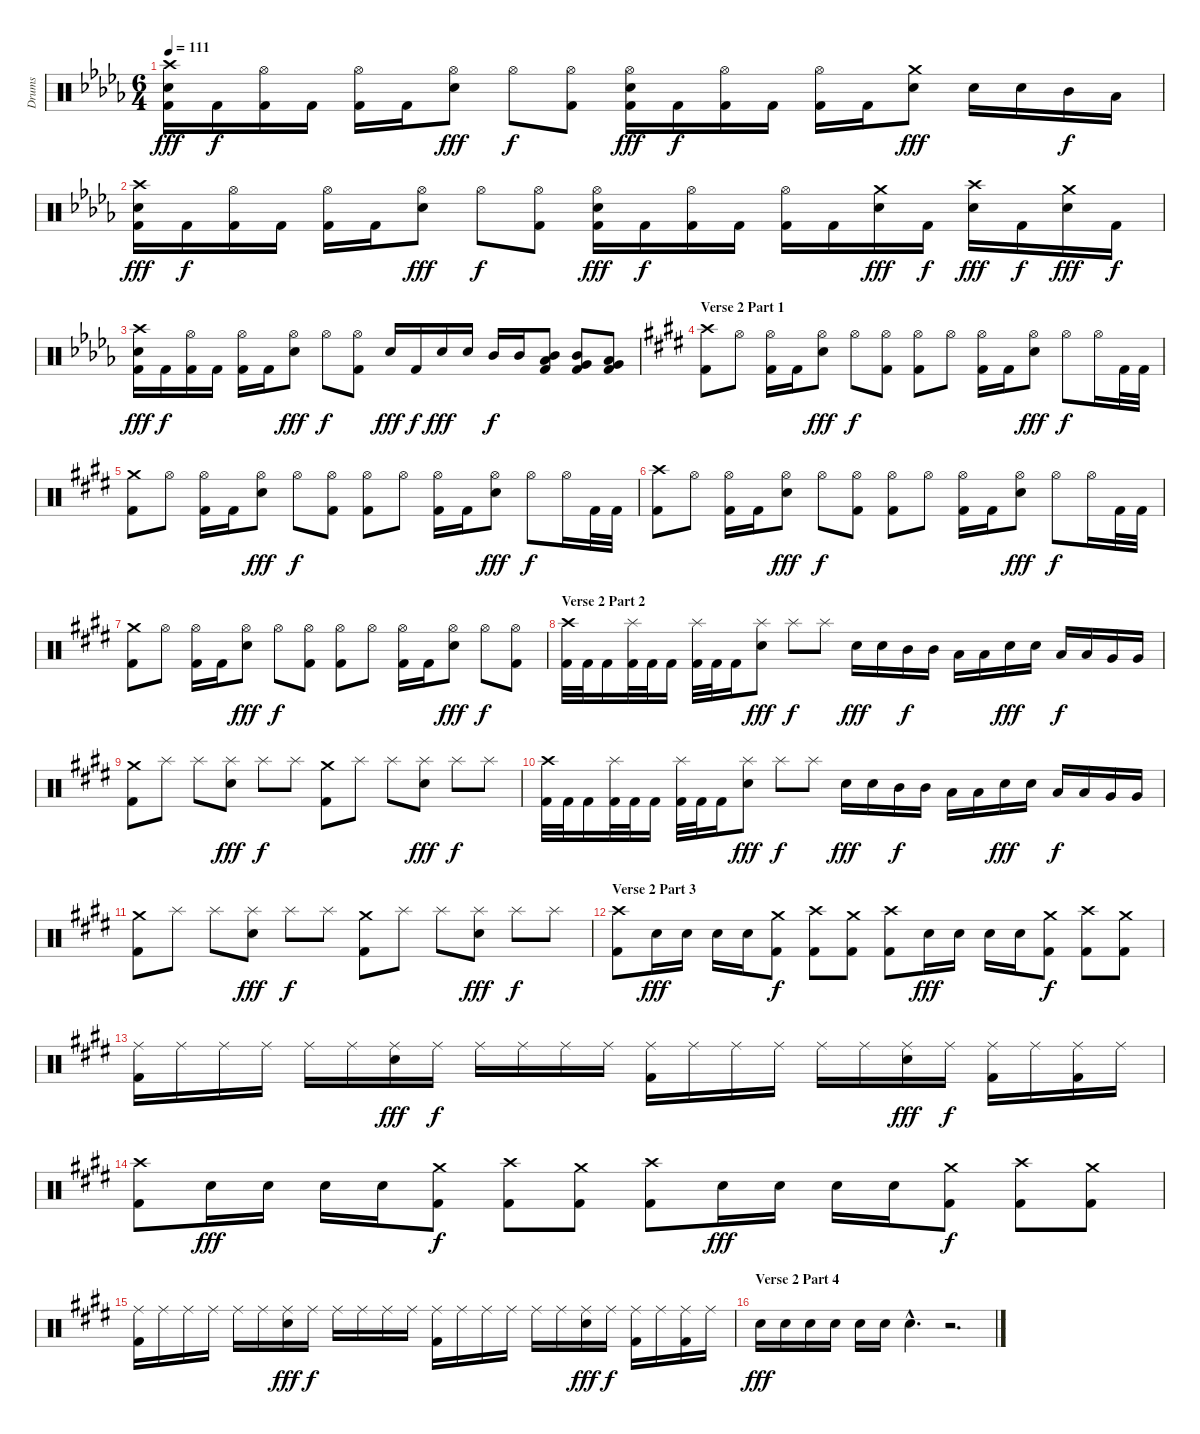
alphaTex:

\track ("Drums" "Drums") {instrument percussion}
\staff {score}
\articulation defaults
\ts (6 4)
\tempo 111
\clef neutral
\ks db
("Crash high (hit)" "Snare (hit) 2" "Kick (hit) 2").16{dy fff} "Kick (hit) 2".16{dy f} ("Hi-Hat (open)" "Kick (hit) 2").16 "Kick (hit) 2".16 ("Hi-Hat (open)" "Kick (hit) 2").16 "Kick (hit) 2".16 ("Hi-Hat (open)" "Snare (hit) 2").8{dy fff} "Hi-Hat (open)".8{dy f} ("Hi-Hat (open)" "Kick (hit) 2").8 ("Hi-Hat (open)" "Snare (hit) 2" "Kick (hit) 2").16{dy fff} "Kick (hit) 2".16{dy f} ("Hi-Hat (open)" "Kick (hit) 2").16 "Kick (hit) 2".16 ("Hi-Hat (open)" "Kick (hit) 2").16 "Kick (hit) 2".16 ("Crash medium (hit)" "Snare (hit) 2").8{dy fff} "Snare (hit) 2".16 "Snare (hit) 2".16 "Mid Tom (hit)".16{dy f} "Low Tom (hit)".16 |
("Crash high (hit)" "Snare (hit) 2" "Kick (hit) 2").16{dy fff} "Kick (hit) 2".16{dy f} ("Hi-Hat (open)" "Kick (hit) 2").16 "Kick (hit) 2".16 ("Hi-Hat (open)" "Kick (hit) 2").16 "Kick (hit) 2".16 ("Hi-Hat (open)" "Snare (hit) 2").8{dy fff} "Hi-Hat (open)".8{dy f} ("Hi-Hat (open)" "Kick (hit) 2").8 ("Hi-Hat (open)" "Snare (hit) 2" "Kick (hit) 2").16{dy fff} "Kick (hit) 2".16{dy f} ("Hi-Hat (open)" "Kick (hit) 2").16 "Kick (hit) 2".16 ("Hi-Hat (open)" "Kick (hit) 2").16 "Kick (hit) 2".16 ("Crash medium (hit)" "Snare (hit) 2").16{dy fff} "Kick (hit) 2".16{dy f} ("Crash high (hit)" "Snare (hit) 2").16{dy fff} "Kick (hit) 2".16{dy f} ("Crash medium (hit)" "Snare (hit) 2").16{dy fff} "Kick (hit) 2".16{dy f} |
("Crash high (hit)" "Snare (hit) 2" "Kick (hit) 2").16{dy fff} "Kick (hit) 2".16{dy f} ("Hi-Hat (open)" "Kick (hit) 2").16 "Kick (hit) 2".16 ("Hi-Hat (open)" "Kick (hit) 2").16 "Kick (hit) 2".16 ("Hi-Hat (open)" "Snare (hit) 2").8{dy fff} "Hi-Hat (open)".8{dy f} ("Hi-Hat (open)" "Kick (hit) 2").8 "Snare (hit) 2".16{dy fff} "Kick (hit) 2".16{dy f} "Snare (hit) 2".16{dy fff} "Snare (hit) 2".16 "Mid Tom (hit)".16{dy f} "Mid Tom (hit)".16 ("Mid Tom (hit)" "Low Tom (hit)" "Kick (hit) 2").8 ("Mid Tom (hit)" "Very Low Tom (hit)" "Kick (hit) 2").8 ("Low Tom (hit)" "Very Low Tom (hit)" "Kick (hit) 2").8 |
\section ("" "Verse 2 Part 1")
\ks c#minor
("Crash high (hit)" "Kick (hit) 2").8 "Hi-Hat (open)".8 ("Hi-Hat (open)" "Kick (hit) 2").16 "Kick (hit) 2".16 ("Hi-Hat (open)" "Snare (hit) 2").8{dy fff} "Hi-Hat (open)".8{dy f} ("Hi-Hat (open)" "Kick (hit) 2").8 ("Hi-Hat (open)" "Kick (hit) 2").8 "Hi-Hat (open)".8 ("Hi-Hat (open)" "Kick (hit) 2").16 "Kick (hit) 2".16 ("Hi-Hat (open)" "Snare (hit) 2").8{dy fff} "Hi-Hat (open)".8{dy f} "Hi-Hat (open)".16 "Kick (hit) 2".32 "Kick (hit) 2".32 |
("Crash medium (hit)" "Kick (hit) 2").8 "Hi-Hat (open)".8 ("Hi-Hat (open)" "Kick (hit) 2").16 "Kick (hit) 2".16 ("Hi-Hat (open)" "Snare (hit) 2").8{dy fff} "Hi-Hat (open)".8{dy f} ("Hi-Hat (open)" "Kick (hit) 2").8 ("Hi-Hat (open)" "Kick (hit) 2").8 "Hi-Hat (open)".8 ("Hi-Hat (open)" "Kick (hit) 2").16 "Kick (hit) 2".16 ("Hi-Hat (open)" "Snare (hit) 2").8{dy fff} "Hi-Hat (open)".8{dy f} "Hi-Hat (open)".16 "Kick (hit) 2".32 "Kick (hit) 2".32 |
("Crash high (hit)" "Kick (hit) 2").8 "Hi-Hat (open)".8 ("Hi-Hat (open)" "Kick (hit) 2").16 "Kick (hit) 2".16 ("Hi-Hat (open)" "Snare (hit) 2").8{dy fff} "Hi-Hat (open)".8{dy f} ("Hi-Hat (open)" "Kick (hit) 2").8 ("Hi-Hat (open)" "Kick (hit) 2").8 "Hi-Hat (open)".8 ("Hi-Hat (open)" "Kick (hit) 2").16 "Kick (hit) 2".16 ("Hi-Hat (open)" "Snare (hit) 2").8{dy fff} "Hi-Hat (open)".8{dy f} "Hi-Hat (open)".16 "Kick (hit) 2".32 "Kick (hit) 2".32 |
("Crash medium (hit)" "Kick (hit) 2").8 "Hi-Hat (open)".8 ("Hi-Hat (open)" "Kick (hit) 2").16 "Kick (hit) 2".16 ("Hi-Hat (open)" "Snare (hit) 2").8{dy fff} "Hi-Hat (open)".8{dy f} ("Hi-Hat (open)" "Kick (hit) 2").8 ("Hi-Hat (open)" "Kick (hit) 2").8 "Hi-Hat (open)".8 ("Hi-Hat (open)" "Kick (hit) 2").16 "Kick (hit) 2".16 ("Hi-Hat (open)" "Snare (hit) 2").8{dy fff} "Hi-Hat (open)".8{dy f} ("Hi-Hat (open)" "Kick (hit) 2").8 |
\section ("" "Verse 2 Part 2")
("Crash high (hit)" "Kick (hit) 2").32 "Kick (hit) 2".32 "Kick (hit) 2".16 ("Splash (hit)" "Kick (hit) 2").32 "Kick (hit) 2".32 "Kick (hit) 2".16 ("Splash (hit)" "Kick (hit) 2").32 "Kick (hit) 2".32 "Kick (hit) 2".16 ("Splash (hit)" "Snare (hit) 2").8{dy fff} "Splash (hit)".8{dy f} "Splash (hit)".8 "Snare (hit) 2".16{dy fff} "Snare (hit) 2".16 "Mid Tom (hit)".16{dy f} "Mid Tom (hit)".16 "Low Tom (hit)".16 "Low Tom (hit)".16 "Snare (hit) 2".16{dy fff} "Snare (hit) 2".16 "Low Tom (hit)".16{dy f} "Low Tom (hit)".16 "Very Low Tom (hit)".16 "Very Low Tom (hit)".16 |
("Crash medium (hit)" "Kick (hit) 2").8 "Splash (hit)".8 "Splash (hit)".8 ("Splash (hit)" "Snare (hit) 2").8{dy fff} "Splash (hit)".8{dy f} "Splash (hit)".8 ("Crash medium (hit)" "Kick (hit) 2").8 "Splash (hit)".8 "Splash (hit)".8 ("Splash (hit)" "Snare (hit) 2").8{dy fff} "Splash (hit)".8{dy f} "Splash (hit)".8 |
("Crash high (hit)" "Kick (hit) 2").32 "Kick (hit) 2".32 "Kick (hit) 2".16 ("Splash (hit)" "Kick (hit) 2").32 "Kick (hit) 2".32 "Kick (hit) 2".16 ("Splash (hit)" "Kick (hit) 2").32 "Kick (hit) 2".32 "Kick (hit) 2".16 ("Splash (hit)" "Snare (hit) 2").8{dy fff} "Splash (hit)".8{dy f} "Splash (hit)".8 "Snare (hit) 2".16{dy fff} "Snare (hit) 2".16 "Mid Tom (hit)".16{dy f} "Mid Tom (hit)".16 "Low Tom (hit)".16 "Low Tom (hit)".16 "Snare (hit) 2".16{dy fff} "Snare (hit) 2".16 "Low Tom (hit)".16{dy f} "Low Tom (hit)".16 "Very Low Tom (hit)".16 "Very Low Tom (hit)".16 |
("Crash medium (hit)" "Kick (hit) 2").8 "Splash (hit)".8 "Splash (hit)".8 ("Splash (hit)" "Snare (hit) 2").8{dy fff} "Splash (hit)".8{dy f} "Splash (hit)".8 ("Crash medium (hit)" "Kick (hit) 2").8 "Splash (hit)".8 "Splash (hit)".8 ("Splash (hit)" "Snare (hit) 2").8{dy fff} "Splash (hit)".8{dy f} "Splash (hit)".8 |
\section ("" "Verse 2 Part 3")
("Crash high (hit)" "Kick (hit) 2").8 "Snare (hit) 2".16{dy fff} "Snare (hit) 2".16 "Snare (hit) 2".16 "Snare (hit) 2".16 ("Crash medium (hit)" "Kick (hit) 2").8{dy f} ("Crash high (hit)" "Kick (hit) 2").8 ("Crash medium (hit)" "Kick (hit) 2").8 ("Crash high (hit)" "Kick (hit) 2").8 "Snare (hit) 2".16{dy fff} "Snare (hit) 2".16 "Snare (hit) 2".16 "Snare (hit) 2".16 ("Crash medium (hit)" "Kick (hit) 2").8{dy f} ("Crash high (hit)" "Kick (hit) 2").8 ("Crash medium (hit)" "Kick (hit) 2").8 |
("Ride (middle)" "Kick (hit) 2").16 "Ride (middle)".16 "Ride (middle)".16 "Ride (middle)".16 "Ride (middle)".16 "Ride (middle)".16 ("Ride (middle)" "Snare (hit) 2").16{dy fff} "Ride (middle)".16{dy f} "Ride (middle)".16 "Ride (middle)".16 "Ride (middle)".16 "Ride (middle)".16 ("Ride (middle)" "Kick (hit) 2").16 "Ride (middle)".16 "Ride (middle)".16 "Ride (middle)".16 "Ride (middle)".16 "Ride (middle)".16 ("Ride (middle)" "Snare (hit) 2").16{dy fff} "Ride (middle)".16{dy f} ("Ride (middle)" "Kick (hit) 2").16 "Ride (middle)".16 ("Ride (middle)" "Kick (hit) 2").16 "Ride (middle)".16 |
("Crash high (hit)" "Kick (hit) 2").8 "Snare (hit) 2".16{dy fff} "Snare (hit) 2".16 "Snare (hit) 2".16 "Snare (hit) 2".16 ("Crash medium (hit)" "Kick (hit) 2").8{dy f} ("Crash high (hit)" "Kick (hit) 2").8 ("Crash medium (hit)" "Kick (hit) 2").8 ("Crash high (hit)" "Kick (hit) 2").8 "Snare (hit) 2".16{dy fff} "Snare (hit) 2".16 "Snare (hit) 2".16 "Snare (hit) 2".16 ("Crash medium (hit)" "Kick (hit) 2").8{dy f} ("Crash high (hit)" "Kick (hit) 2").8 ("Crash medium (hit)" "Kick (hit) 2").8 |
("Ride (middle)" "Kick (hit) 2").16 "Ride (middle)".16 "Ride (middle)".16 "Ride (middle)".16 "Ride (middle)".16 "Ride (middle)".16 ("Ride (middle)" "Snare (hit) 2").16{dy fff} "Ride (middle)".16{dy f} "Ride (middle)".16 "Ride (middle)".16 "Ride (middle)".16 "Ride (middle)".16 ("Ride (middle)" "Kick (hit) 2").16 "Ride (middle)".16 "Ride (middle)".16 "Ride (middle)".16 "Ride (middle)".16 "Ride (middle)".16 ("Ride (middle)" "Snare (hit) 2").16{dy fff} "Ride (middle)".16{dy f} ("Ride (middle)" "Kick (hit) 2").16 "Ride (middle)".16 ("Ride (middle)" "Kick (hit) 2").16 "Ride (middle)".16 |
\section ("" "Verse 2 Part 4")
"Snare (hit) 2".16{dy fff} "Snare (hit) 2".16 "Snare (hit) 2".16 "Snare (hit) 2".16 "Snare (hit) 2".16 "Snare (hit) 2".16 "Snare (hit) 2"{hac}.4{d} r.2{d}
